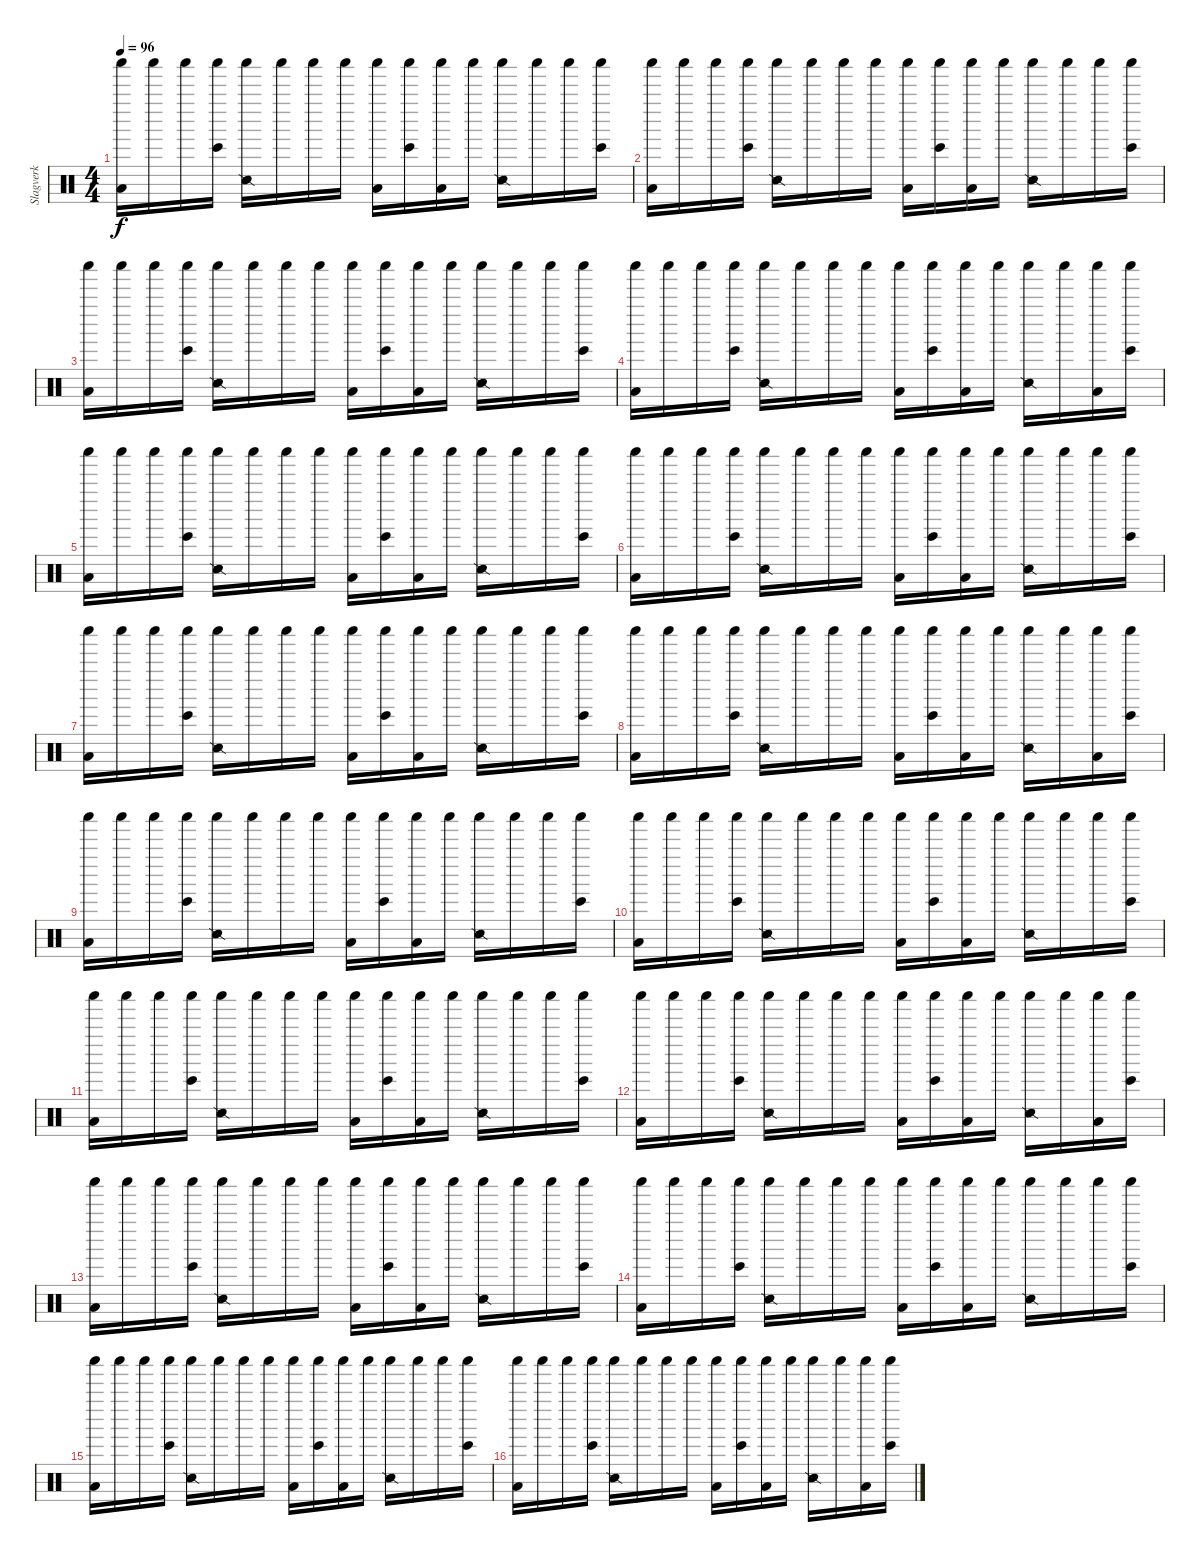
\track ("Slagverk" "Slagverk") {instrument percussion}
\staff {score}
\articulation defaults
\ts (4 4)
\tempo 96
\clef neutral
\ks c
("Shaker (hit)" "Low Floor Tom (hit)").16{dy f} "Shaker (hit)".16 "Shaker (hit)".16 ("Shaker (hit)" "Bongo High (hit)").16 ("Shaker (hit)" "Snare (side stick) 2").16 "Shaker (hit)".16 "Shaker (hit)".16 "Shaker (hit)".16 ("Shaker (hit)" "Low Floor Tom (hit)").16 ("Shaker (hit)" "Bongo High (hit)").16 ("Shaker (hit)" "Low Floor Tom (hit)").16 "Shaker (hit)".16 ("Shaker (hit)" "Snare (side stick) 2").16 "Shaker (hit)".16 "Shaker (hit)".16 ("Shaker (hit)" "Bongo High (hit)").16 |
("Shaker (hit)" "Low Floor Tom (hit)").16 "Shaker (hit)".16 "Shaker (hit)".16 ("Shaker (hit)" "Bongo High (hit)").16 ("Shaker (hit)" "Snare (side stick) 2").16 "Shaker (hit)".16 "Shaker (hit)".16 "Shaker (hit)".16 ("Shaker (hit)" "Low Floor Tom (hit)").16 ("Shaker (hit)" "Bongo High (hit)").16 ("Shaker (hit)" "Low Floor Tom (hit)").16 "Shaker (hit)".16 ("Shaker (hit)" "Snare (side stick) 2").16 "Shaker (hit)".16 "Shaker (hit)".16 ("Shaker (hit)" "Bongo High (hit)").16 |
("Shaker (hit)" "Low Floor Tom (hit)").16 "Shaker (hit)".16 "Shaker (hit)".16 ("Shaker (hit)" "Bongo High (hit)").16 ("Shaker (hit)" "Snare (side stick) 2").16 "Shaker (hit)".16 "Shaker (hit)".16 "Shaker (hit)".16 ("Shaker (hit)" "Low Floor Tom (hit)").16 ("Shaker (hit)" "Bongo High (hit)").16 ("Shaker (hit)" "Low Floor Tom (hit)").16 "Shaker (hit)".16 ("Shaker (hit)" "Snare (side stick) 2").16 "Shaker (hit)".16 "Shaker (hit)".16 ("Shaker (hit)" "Bongo High (hit)").16 |
("Shaker (hit)" "Low Floor Tom (hit)").16 "Shaker (hit)".16 "Shaker (hit)".16 ("Shaker (hit)" "Bongo High (hit)").16 ("Shaker (hit)" "Snare (side stick) 2").16 "Shaker (hit)".16 "Shaker (hit)".16 "Shaker (hit)".16 ("Shaker (hit)" "Low Floor Tom (hit)").16 ("Shaker (hit)" "Bongo High (hit)").16 ("Shaker (hit)" "Low Floor Tom (hit)").16 "Shaker (hit)".16 ("Shaker (hit)" "Snare (side stick) 2").16 "Shaker (hit)".16 ("Shaker (hit)" "Low Floor Tom (hit)").16 ("Shaker (hit)" "Bongo High (hit)").16 |
("Shaker (hit)" "Low Floor Tom (hit)").16 "Shaker (hit)".16 "Shaker (hit)".16 ("Shaker (hit)" "Bongo High (hit)").16 ("Shaker (hit)" "Snare (side stick) 2").16 "Shaker (hit)".16 "Shaker (hit)".16 "Shaker (hit)".16 ("Shaker (hit)" "Low Floor Tom (hit)").16 ("Shaker (hit)" "Bongo High (hit)").16 ("Shaker (hit)" "Low Floor Tom (hit)").16 "Shaker (hit)".16 ("Shaker (hit)" "Snare (side stick) 2").16 "Shaker (hit)".16 "Shaker (hit)".16 ("Shaker (hit)" "Bongo High (hit)").16 |
("Shaker (hit)" "Low Floor Tom (hit)").16 "Shaker (hit)".16 "Shaker (hit)".16 ("Shaker (hit)" "Bongo High (hit)").16 ("Shaker (hit)" "Snare (side stick) 2").16 "Shaker (hit)".16 "Shaker (hit)".16 "Shaker (hit)".16 ("Shaker (hit)" "Low Floor Tom (hit)").16 ("Shaker (hit)" "Bongo High (hit)").16 ("Shaker (hit)" "Low Floor Tom (hit)").16 "Shaker (hit)".16 ("Shaker (hit)" "Snare (side stick) 2").16 "Shaker (hit)".16 "Shaker (hit)".16 ("Shaker (hit)" "Bongo High (hit)").16 |
("Shaker (hit)" "Low Floor Tom (hit)").16 "Shaker (hit)".16 "Shaker (hit)".16 ("Shaker (hit)" "Bongo High (hit)").16 ("Shaker (hit)" "Snare (side stick) 2").16 "Shaker (hit)".16 "Shaker (hit)".16 "Shaker (hit)".16 ("Shaker (hit)" "Low Floor Tom (hit)").16 ("Shaker (hit)" "Bongo High (hit)").16 ("Shaker (hit)" "Low Floor Tom (hit)").16 "Shaker (hit)".16 ("Shaker (hit)" "Snare (side stick) 2").16 "Shaker (hit)".16 "Shaker (hit)".16 ("Shaker (hit)" "Bongo High (hit)").16 |
("Shaker (hit)" "Low Floor Tom (hit)").16 "Shaker (hit)".16 "Shaker (hit)".16 ("Shaker (hit)" "Bongo High (hit)").16 ("Shaker (hit)" "Snare (side stick) 2").16 "Shaker (hit)".16 "Shaker (hit)".16 "Shaker (hit)".16 ("Shaker (hit)" "Low Floor Tom (hit)").16 ("Shaker (hit)" "Bongo High (hit)").16 ("Shaker (hit)" "Low Floor Tom (hit)").16 "Shaker (hit)".16 ("Shaker (hit)" "Snare (side stick) 2").16 "Shaker (hit)".16 ("Shaker (hit)" "Low Floor Tom (hit)").16 ("Shaker (hit)" "Bongo High (hit)").16 |
("Shaker (hit)" "Low Floor Tom (hit)").16 "Shaker (hit)".16 "Shaker (hit)".16 ("Shaker (hit)" "Bongo High (hit)").16 ("Shaker (hit)" "Snare (side stick) 2").16 "Shaker (hit)".16 "Shaker (hit)".16 "Shaker (hit)".16 ("Shaker (hit)" "Low Floor Tom (hit)").16 ("Shaker (hit)" "Bongo High (hit)").16 ("Shaker (hit)" "Low Floor Tom (hit)").16 "Shaker (hit)".16 ("Shaker (hit)" "Snare (side stick) 2").16 "Shaker (hit)".16 "Shaker (hit)".16 ("Shaker (hit)" "Bongo High (hit)").16 |
("Shaker (hit)" "Low Floor Tom (hit)").16 "Shaker (hit)".16 "Shaker (hit)".16 ("Shaker (hit)" "Bongo High (hit)").16 ("Shaker (hit)" "Snare (side stick) 2").16 "Shaker (hit)".16 "Shaker (hit)".16 "Shaker (hit)".16 ("Shaker (hit)" "Low Floor Tom (hit)").16 ("Shaker (hit)" "Bongo High (hit)").16 ("Shaker (hit)" "Low Floor Tom (hit)").16 "Shaker (hit)".16 ("Shaker (hit)" "Snare (side stick) 2").16 "Shaker (hit)".16 "Shaker (hit)".16 ("Shaker (hit)" "Bongo High (hit)").16 |
("Shaker (hit)" "Low Floor Tom (hit)").16 "Shaker (hit)".16 "Shaker (hit)".16 ("Shaker (hit)" "Bongo High (hit)").16 ("Shaker (hit)" "Snare (side stick) 2").16 "Shaker (hit)".16 "Shaker (hit)".16 "Shaker (hit)".16 ("Shaker (hit)" "Low Floor Tom (hit)").16 ("Shaker (hit)" "Bongo High (hit)").16 ("Shaker (hit)" "Low Floor Tom (hit)").16 "Shaker (hit)".16 ("Shaker (hit)" "Snare (side stick) 2").16 "Shaker (hit)".16 "Shaker (hit)".16 ("Shaker (hit)" "Bongo High (hit)").16 |
("Shaker (hit)" "Low Floor Tom (hit)").16 "Shaker (hit)".16 "Shaker (hit)".16 ("Shaker (hit)" "Bongo High (hit)").16 ("Shaker (hit)" "Snare (side stick) 2").16 "Shaker (hit)".16 "Shaker (hit)".16 "Shaker (hit)".16 ("Shaker (hit)" "Low Floor Tom (hit)").16 ("Shaker (hit)" "Bongo High (hit)").16 ("Shaker (hit)" "Low Floor Tom (hit)").16 "Shaker (hit)".16 ("Shaker (hit)" "Snare (side stick) 2").16 "Shaker (hit)".16 ("Shaker (hit)" "Low Floor Tom (hit)").16 ("Shaker (hit)" "Bongo High (hit)").16 |
("Shaker (hit)" "Low Floor Tom (hit)").16 "Shaker (hit)".16 "Shaker (hit)".16 ("Shaker (hit)" "Bongo High (hit)").16 ("Shaker (hit)" "Snare (side stick) 2").16 "Shaker (hit)".16 "Shaker (hit)".16 "Shaker (hit)".16 ("Shaker (hit)" "Low Floor Tom (hit)").16 ("Shaker (hit)" "Bongo High (hit)").16 ("Shaker (hit)" "Low Floor Tom (hit)").16 "Shaker (hit)".16 ("Shaker (hit)" "Snare (side stick) 2").16 "Shaker (hit)".16 "Shaker (hit)".16 ("Shaker (hit)" "Bongo High (hit)").16 |
("Shaker (hit)" "Low Floor Tom (hit)").16 "Shaker (hit)".16 "Shaker (hit)".16 ("Shaker (hit)" "Bongo High (hit)").16 ("Shaker (hit)" "Snare (side stick) 2").16 "Shaker (hit)".16 "Shaker (hit)".16 "Shaker (hit)".16 ("Shaker (hit)" "Low Floor Tom (hit)").16 ("Shaker (hit)" "Bongo High (hit)").16 ("Shaker (hit)" "Low Floor Tom (hit)").16 "Shaker (hit)".16 ("Shaker (hit)" "Snare (side stick) 2").16 "Shaker (hit)".16 "Shaker (hit)".16 ("Shaker (hit)" "Bongo High (hit)").16 |
("Shaker (hit)" "Low Floor Tom (hit)").16 "Shaker (hit)".16 "Shaker (hit)".16 ("Shaker (hit)" "Bongo High (hit)").16 ("Shaker (hit)" "Snare (side stick) 2").16 "Shaker (hit)".16 "Shaker (hit)".16 "Shaker (hit)".16 ("Shaker (hit)" "Low Floor Tom (hit)").16 ("Shaker (hit)" "Bongo High (hit)").16 ("Shaker (hit)" "Low Floor Tom (hit)").16 "Shaker (hit)".16 ("Shaker (hit)" "Snare (side stick) 2").16 "Shaker (hit)".16 "Shaker (hit)".16 ("Shaker (hit)" "Bongo High (hit)").16 |
("Shaker (hit)" "Low Floor Tom (hit)").16 "Shaker (hit)".16 "Shaker (hit)".16 ("Shaker (hit)" "Bongo High (hit)").16 ("Shaker (hit)" "Snare (side stick) 2").16 "Shaker (hit)".16 "Shaker (hit)".16 "Shaker (hit)".16 ("Shaker (hit)" "Low Floor Tom (hit)").16 ("Shaker (hit)" "Bongo High (hit)").16 ("Shaker (hit)" "Low Floor Tom (hit)").16 "Shaker (hit)".16 ("Shaker (hit)" "Snare (side stick) 2").16 "Shaker (hit)".16 ("Shaker (hit)" "Low Floor Tom (hit)").16 ("Shaker (hit)" "Bongo High (hit)").16
